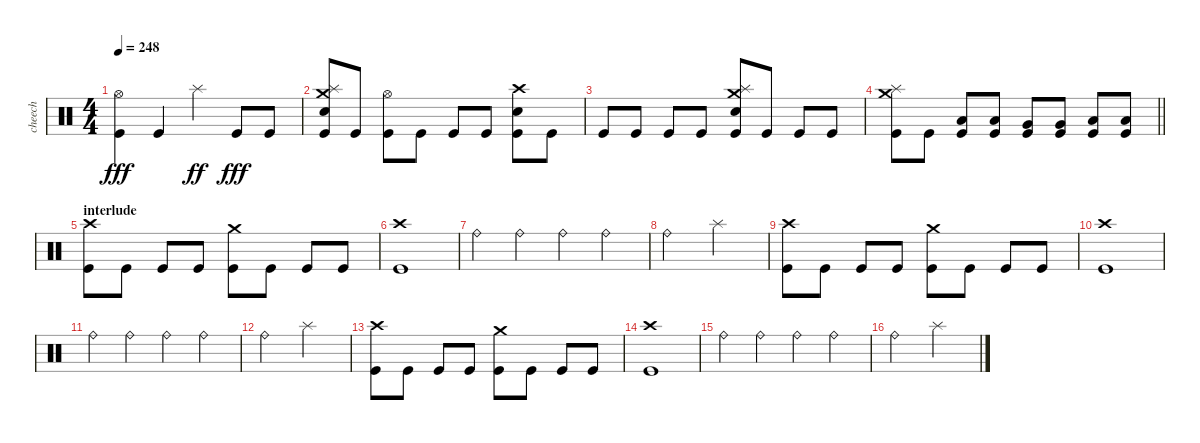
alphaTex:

\track ("cheech" "cheech") {instrument percussion}
\staff {score}
\articulation defaults
\ts (4 4)
\tempo 248
\clef neutral
\ks c
("Hi-Hat (open)" "Kick (hit)").4{dy fff} "Kick (hit)".4 "Splash (hit)".4{dy ff} "Kick (hit)".8{dy fff} "Kick (hit)".8 |
("Crash medium (hit)" "Splash (hit)" "Electric Snare (hit)" "Kick (hit)").8 "Kick (hit)".8 ("Hi-Hat (open)" "Kick (hit)").8 "Kick (hit)".8 "Kick (hit)".8 "Kick (hit)".8 ("Crash high (hit)" "Electric Snare (hit)" "Kick (hit)").8 "Kick (hit)".8 |
"Kick (hit)".8 "Kick (hit)".8 "Kick (hit)".8 "Kick (hit)".8 ("Crash medium (hit)" "Splash (hit)" "Electric Snare (hit)" "Kick (hit)").8 "Kick (hit)".8 "Kick (hit)".8 "Kick (hit)".8 |
\barLineRight lightlight
("Crash medium (hit)" "Splash (hit)" "Kick (hit)").8 "Kick (hit)".8 ("Low Tom (hit)" "Kick (hit)").8 ("Low Tom (hit)" "Kick (hit)").8 ("Very Low Tom (hit)" "Kick (hit)").8 ("Very Low Tom (hit)" "Kick (hit)").8 ("Low Floor Tom (hit)" "Kick (hit)").8 ("Low Floor Tom (hit)" "Kick (hit)").8 |
\section ("" "interlude")
("Crash high (hit)" "Kick (hit)").8 "Kick (hit)".8 "Kick (hit)".8 "Kick (hit)".8 ("Crash medium (hit)" "Kick (hit)").8 "Kick (hit)".8 "Kick (hit)".8 "Kick (hit)".8 |
("Crash high (hit)" "Kick (hit)").1 |
"Ride (bell)".4 "Ride (bell)".4 "Ride (bell)".4 "Ride (bell)".4 |
"Ride (bell)".2 "Splash (hit)".2 |
("Crash high (hit)" "Kick (hit)").8 "Kick (hit)".8 "Kick (hit)".8 "Kick (hit)".8 ("Crash medium (hit)" "Kick (hit)").8 "Kick (hit)".8 "Kick (hit)".8 "Kick (hit)".8 |
("Crash high (hit)" "Kick (hit)").1 |
"Ride (bell)".4 "Ride (bell)".4 "Ride (bell)".4 "Ride (bell)".4 |
"Ride (bell)".2 "Splash (hit)".2 |
("Crash high (hit)" "Kick (hit)").8 "Kick (hit)".8 "Kick (hit)".8 "Kick (hit)".8 ("Crash medium (hit)" "Kick (hit)").8 "Kick (hit)".8 "Kick (hit)".8 "Kick (hit)".8 |
("Crash high (hit)" "Kick (hit)").1 |
"Ride (bell)".4 "Ride (bell)".4 "Ride (bell)".4 "Ride (bell)".4 |
"Ride (bell)".2 "Splash (hit)".2
